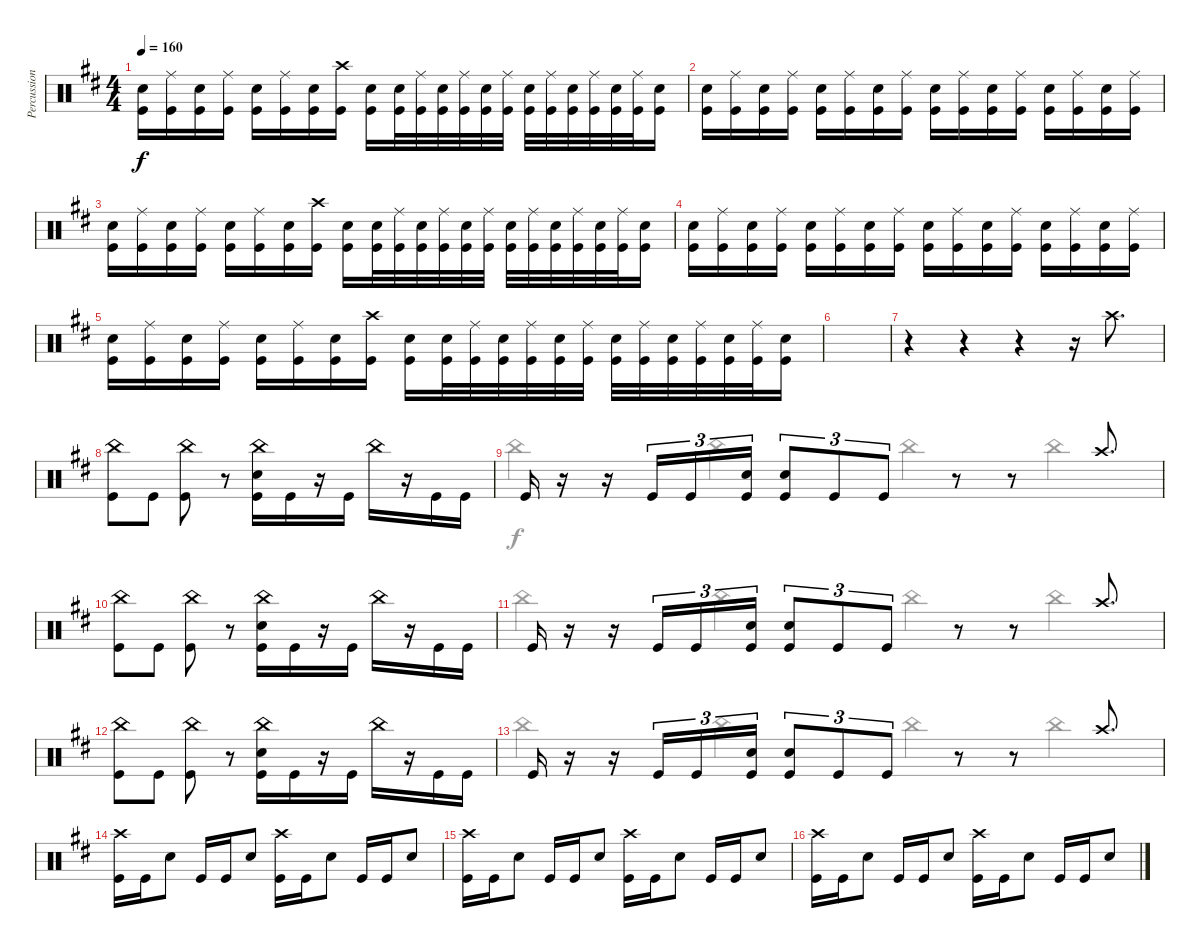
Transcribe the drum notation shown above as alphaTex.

\track ("Percussion" "Percussion") {instrument percussion}
\staff {score}
\articulation defaults
\voice
\ts (4 4)
\tempo 160
\clef neutral
\ks bminor
("Snare (hit) 2" "Kick (hit)").16{dy f} ("Ride (middle)" "Kick (hit)").16 ("Snare (hit) 2" "Kick (hit)").16 ("Ride (middle)" "Kick (hit)").16 ("Snare (hit) 2" "Kick (hit)").16 ("Ride (middle)" "Kick (hit)").16 ("Snare (hit) 2" "Kick (hit)").16 ("Crash high (hit)" "Kick (hit)").16 ("Snare (hit) 2" "Kick (hit)").16 ("Snare (hit) 2" "Kick (hit)").32 ("Ride (middle)" "Kick (hit)").32 ("Snare (hit) 2" "Kick (hit)").32 ("Ride (middle)" "Kick (hit)").32 ("Snare (hit) 2" "Kick (hit)").32 ("Ride (middle)" "Kick (hit)").32 ("Snare (hit) 2" "Kick (hit)").32 ("Ride (middle)" "Kick (hit)").32 ("Snare (hit) 2" "Kick (hit)").32 ("Ride (middle)" "Kick (hit)").32 ("Snare (hit) 2" "Kick (hit)").32 ("Ride (middle)" "Kick (hit)").32 ("Snare (hit) 2" "Kick (hit)").16 |
("Snare (hit) 2" "Kick (hit)").16 ("Ride (middle)" "Kick (hit)").16 ("Snare (hit) 2" "Kick (hit)").16 ("Ride (middle)" "Kick (hit)").16 ("Snare (hit) 2" "Kick (hit)").16 ("Ride (middle)" "Kick (hit)").16 ("Snare (hit) 2" "Kick (hit)").16 ("Ride (middle)" "Kick (hit)").16 ("Snare (hit) 2" "Kick (hit)").16 ("Ride (middle)" "Kick (hit)").16 ("Snare (hit) 2" "Kick (hit)").16 ("Ride (middle)" "Kick (hit)").16 ("Snare (hit) 2" "Kick (hit)").16 ("Ride (middle)" "Kick (hit)").16 ("Snare (hit) 2" "Kick (hit)").16 ("Ride (middle)" "Kick (hit)").16 |
("Snare (hit) 2" "Kick (hit)").16 ("Ride (middle)" "Kick (hit)").16 ("Snare (hit) 2" "Kick (hit)").16 ("Ride (middle)" "Kick (hit)").16 ("Snare (hit) 2" "Kick (hit)").16 ("Ride (middle)" "Kick (hit)").16 ("Snare (hit) 2" "Kick (hit)").16 ("Crash high (hit)" "Kick (hit)").16 ("Snare (hit) 2" "Kick (hit)").16 ("Snare (hit) 2" "Kick (hit)").32 ("Ride (middle)" "Kick (hit)").32 ("Snare (hit) 2" "Kick (hit)").32 ("Ride (middle)" "Kick (hit)").32 ("Snare (hit) 2" "Kick (hit)").32 ("Ride (middle)" "Kick (hit)").32 ("Snare (hit) 2" "Kick (hit)").32 ("Ride (middle)" "Kick (hit)").32 ("Snare (hit) 2" "Kick (hit)").32 ("Ride (middle)" "Kick (hit)").32 ("Snare (hit) 2" "Kick (hit)").32 ("Ride (middle)" "Kick (hit)").32 ("Snare (hit) 2" "Kick (hit)").16 |
("Snare (hit) 2" "Kick (hit)").16 ("Ride (middle)" "Kick (hit)").16 ("Snare (hit) 2" "Kick (hit)").16 ("Ride (middle)" "Kick (hit)").16 ("Snare (hit) 2" "Kick (hit)").16 ("Ride (middle)" "Kick (hit)").16 ("Snare (hit) 2" "Kick (hit)").16 ("Ride (middle)" "Kick (hit)").16 ("Snare (hit) 2" "Kick (hit)").16 ("Ride (middle)" "Kick (hit)").16 ("Snare (hit) 2" "Kick (hit)").16 ("Ride (middle)" "Kick (hit)").16 ("Snare (hit) 2" "Kick (hit)").16 ("Ride (middle)" "Kick (hit)").16 ("Snare (hit) 2" "Kick (hit)").16 ("Ride (middle)" "Kick (hit)").16 |
("Snare (hit) 2" "Kick (hit)").16 ("Ride (middle)" "Kick (hit)").16 ("Snare (hit) 2" "Kick (hit)").16 ("Ride (middle)" "Kick (hit)").16 ("Snare (hit) 2" "Kick (hit)").16 ("Ride (middle)" "Kick (hit)").16 ("Snare (hit) 2" "Kick (hit)").16 ("Crash high (hit)" "Kick (hit)").16 ("Snare (hit) 2" "Kick (hit)").16 ("Snare (hit) 2" "Kick (hit)").32 ("Ride (middle)" "Kick (hit)").32 ("Snare (hit) 2" "Kick (hit)").32 ("Ride (middle)" "Kick (hit)").32 ("Snare (hit) 2" "Kick (hit)").32 ("Ride (middle)" "Kick (hit)").32 ("Snare (hit) 2" "Kick (hit)").32 ("Ride (middle)" "Kick (hit)").32 ("Snare (hit) 2" "Kick (hit)").32 ("Ride (middle)" "Kick (hit)").32 ("Snare (hit) 2" "Kick (hit)").32 ("Ride (middle)" "Kick (hit)").32 ("Snare (hit) 2" "Kick (hit)").16 |
|
r.4 r.4 r.4 r.16 "Crash high (hit)".8{d} |
("China (hit)" "Kick (hit)").8 "Kick (hit)".8 ("China (hit)" "Kick (hit)").8 r.8 ("China (hit)" "Snare (hit) 2" "Kick (hit)").16 "Kick (hit)".16 r.16 "Kick (hit)".16 "China (hit)".16 r.16 "Kick (hit)".16 "Kick (hit)".16 |
"Kick (hit)".16 r.16 r.16 "Kick (hit)".16{tu (3 2)} "Kick (hit)".16{tu (3 2)} ("Snare (hit) 2" "Kick (hit)").16{tu (3 2)} ("Snare (hit) 2" "Kick (hit)").8{tu (3 2)} "Kick (hit)".8{tu (3 2)} "Kick (hit)".8{tu (3 2)} r.8 r.8 "Crash high (hit)".8{d} |
("China (hit)" "Kick (hit)").8 "Kick (hit)".8 ("China (hit)" "Kick (hit)").8 r.8 ("China (hit)" "Snare (hit) 2" "Kick (hit)").16 "Kick (hit)".16 r.16 "Kick (hit)".16 "China (hit)".16 r.16 "Kick (hit)".16 "Kick (hit)".16 |
"Kick (hit)".16 r.16 r.16 "Kick (hit)".16{tu (3 2)} "Kick (hit)".16{tu (3 2)} ("Snare (hit) 2" "Kick (hit)").16{tu (3 2)} ("Snare (hit) 2" "Kick (hit)").8{tu (3 2)} "Kick (hit)".8{tu (3 2)} "Kick (hit)".8{tu (3 2)} r.8 r.8 "Crash high (hit)".8{d} |
("China (hit)" "Kick (hit)").8 "Kick (hit)".8 ("China (hit)" "Kick (hit)").8 r.8 ("China (hit)" "Snare (hit) 2" "Kick (hit)").16 "Kick (hit)".16 r.16 "Kick (hit)".16 "China (hit)".16 r.16 "Kick (hit)".16 "Kick (hit)".16 |
"Kick (hit)".16 r.16 r.16 "Kick (hit)".16{tu (3 2)} "Kick (hit)".16{tu (3 2)} ("Snare (hit) 2" "Kick (hit)").16{tu (3 2)} ("Snare (hit) 2" "Kick (hit)").8{tu (3 2)} "Kick (hit)".8{tu (3 2)} "Kick (hit)".8{tu (3 2)} r.8 r.8 "Crash high (hit)".8{d} |
("Crash high (hit)" "Kick (hit)").16 "Kick (hit)".16 "Snare (hit) 2".8 "Kick (hit)".16 "Kick (hit)".16 "Snare (hit) 2".8 ("Crash high (hit)" "Kick (hit)").16 "Kick (hit)".16 "Snare (hit) 2".8 "Kick (hit)".16 "Kick (hit)".16 "Snare (hit) 2".8 |
("Crash high (hit)" "Kick (hit)").16 "Kick (hit)".16 "Snare (hit) 2".8 "Kick (hit)".16 "Kick (hit)".16 "Snare (hit) 2".8 ("Crash high (hit)" "Kick (hit)").16 "Kick (hit)".16 "Snare (hit) 2".8 "Kick (hit)".16 "Kick (hit)".16 "Snare (hit) 2".8 |
("Crash high (hit)" "Kick (hit)").16 "Kick (hit)".16 "Snare (hit) 2".8 "Kick (hit)".16 "Kick (hit)".16 "Snare (hit) 2".8 ("Crash high (hit)" "Kick (hit)").16 "Kick (hit)".16 "Snare (hit) 2".8 "Kick (hit)".16 "Kick (hit)".16 "Snare (hit) 2".8
\voice
\clef neutral
\ottava regular
\simile none
\ks bminor
|
|
|
|
|
|
|
|
"China (hit)".4 "China (hit)".4 "China (hit)".4 "China (hit)".4 |
|
"China (hit)".4 "China (hit)".4 "China (hit)".4 "China (hit)".4 |
|
"China (hit)".4 "China (hit)".4 "China (hit)".4 "China (hit)".4 |
|
|
